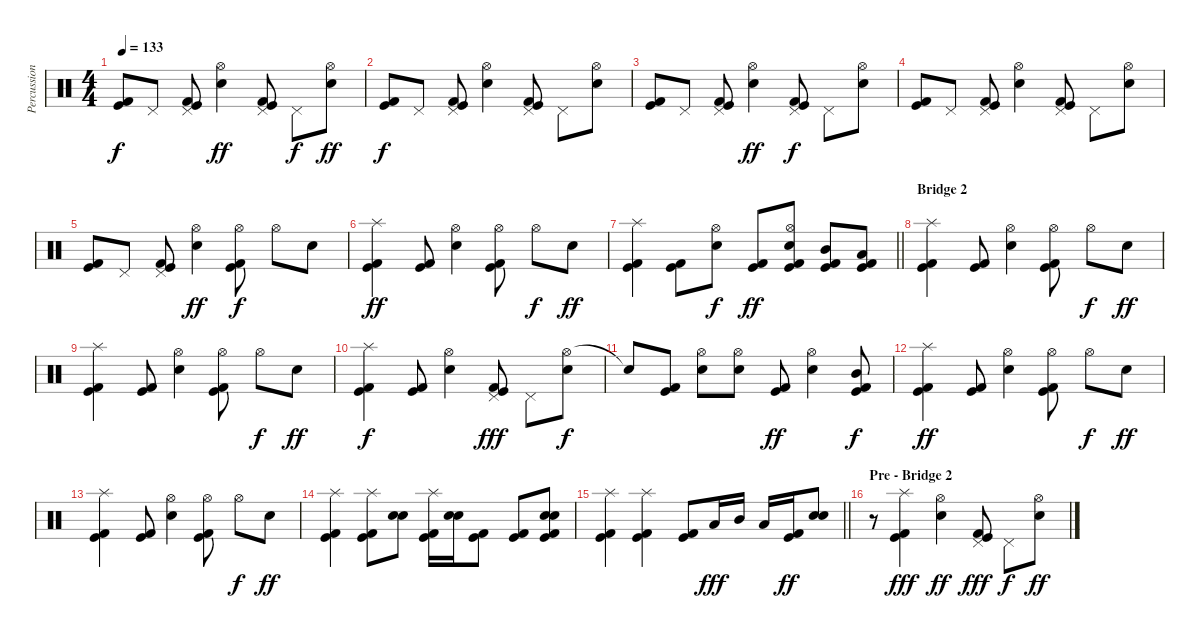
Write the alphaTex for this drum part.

\track ("Percussion" "Percussion") {instrument percussion}
\staff {score}
\articulation defaults
\ts (4 4)
\tempo 133
\clef neutral
\ks c
("Kick (hit)" "Kick (hit) 2").8{dy f} "Pedal Hi-Hat (hit)".8 ("Pedal Hi-Hat (hit)" "Kick (hit)" "Kick (hit) 2").8 ("Hi-Hat (open)" "Snare (hit) 2").4{dy ff} ("Pedal Hi-Hat (hit)" "Kick (hit)" "Kick (hit) 2").8 "Pedal Hi-Hat (hit)".8{dy f} ("Hi-Hat (open)" "Snare (hit) 2").8{dy ff} |
("Kick (hit)" "Kick (hit) 2").8{dy f} "Pedal Hi-Hat (hit)".8 ("Pedal Hi-Hat (hit)" "Kick (hit)" "Kick (hit) 2").8 ("Hi-Hat (open)" "Snare (hit) 2").4 ("Pedal Hi-Hat (hit)" "Kick (hit)" "Kick (hit) 2").8 "Pedal Hi-Hat (hit)".8 ("Hi-Hat (open)" "Snare (hit) 2").8 |
("Kick (hit)" "Kick (hit) 2").8 "Pedal Hi-Hat (hit)".8 ("Pedal Hi-Hat (hit)" "Kick (hit)" "Kick (hit) 2").8 ("Hi-Hat (open)" "Snare (hit) 2").4{dy ff} ("Pedal Hi-Hat (hit)" "Kick (hit)" "Kick (hit) 2").8{dy f} "Pedal Hi-Hat (hit)".8 ("Hi-Hat (open)" "Snare (hit) 2").8 |
("Kick (hit)" "Kick (hit) 2").8 "Pedal Hi-Hat (hit)".8 ("Pedal Hi-Hat (hit)" "Kick (hit)" "Kick (hit) 2").8 ("Hi-Hat (open)" "Snare (hit) 2").4 ("Pedal Hi-Hat (hit)" "Kick (hit)" "Kick (hit) 2").8 "Pedal Hi-Hat (hit)".8 ("Hi-Hat (open)" "Snare (hit) 2").8 |
("Kick (hit)" "Kick (hit) 2").8 "Pedal Hi-Hat (hit)".8 ("Pedal Hi-Hat (hit)" "Kick (hit)" "Kick (hit) 2").8 ("Hi-Hat (open)" "Snare (hit) 2").4{dy ff} ("Hi-Hat (open)" "Kick (hit)" "Kick (hit) 2").8{dy f} "Hi-Hat (open)".8 "Snare (hit) 2".8 |
("Splash (hit)" "Kick (hit)" "Kick (hit) 2").4{dy ff} ("Kick (hit)" "Kick (hit) 2").8 ("Hi-Hat (open)" "Snare (hit) 2").4 ("Hi-Hat (open)" "Kick (hit)" "Kick (hit) 2").8 "Hi-Hat (open)".8{dy f} "Snare (hit) 2".8{dy ff} |
\barLineRight lightlight
("Splash (hit)" "Kick (hit)" "Kick (hit) 2").4 ("Kick (hit)" "Kick (hit) 2").8 ("Hi-Hat (open)" "Snare (hit) 2").8{dy f} ("Kick (hit)" "Kick (hit) 2").8{dy ff} ("Hi-Hat (open)" "Snare (hit) 2" "Kick (hit)" "Kick (hit) 2").8 ("Mid Tom (hit)" "Kick (hit)" "Kick (hit) 2").8 ("Low Tom (hit)" "Kick (hit)" "Kick (hit) 2").8 |
\section ("" "Bridge 2")
("Splash (hit)" "Kick (hit)" "Kick (hit) 2").4 ("Kick (hit)" "Kick (hit) 2").8 ("Hi-Hat (open)" "Snare (hit) 2").4 ("Hi-Hat (open)" "Kick (hit)" "Kick (hit) 2").8 "Hi-Hat (open)".8{dy f} "Snare (hit) 2".8{dy ff} |
("Splash (hit)" "Kick (hit)" "Kick (hit) 2").4 ("Kick (hit)" "Kick (hit) 2").8 ("Hi-Hat (open)" "Snare (hit) 2").4 ("Hi-Hat (open)" "Kick (hit)" "Kick (hit) 2").8 "Hi-Hat (open)".8{dy f} "Snare (hit) 2".8{dy ff} |
("Splash (hit)" "Kick (hit)" "Kick (hit) 2").4{dy f} ("Kick (hit)" "Kick (hit) 2").8 ("Hi-Hat (open)" "Snare (hit) 2").4 ("Pedal Hi-Hat (hit)" "Kick (hit)" "Kick (hit) 2").8{dy fff} "Pedal Hi-Hat (hit)".8 ("Hi-Hat (open)" "Snare (hit) 2").8{dy f} |
"Snare (hit)"{t}.8 ("Kick (hit)" "Kick (hit) 2").8 ("Hi-Hat (open)" "Snare (hit) 2").8 ("Hi-Hat (open)" "Snare (hit) 2").8 ("Kick (hit)" "Kick (hit) 2").8{dy ff} ("Hi-Hat (open)" "Snare (hit) 2").4 ("Mid Tom (hit)" "Kick (hit)" "Kick (hit) 2").8{dy f} |
("Splash (hit)" "Kick (hit)" "Kick (hit) 2").4{dy ff} ("Kick (hit)" "Kick (hit) 2").8 ("Hi-Hat (open)" "Snare (hit) 2").4 ("Hi-Hat (open)" "Kick (hit)" "Kick (hit) 2").8 "Hi-Hat (open)".8{dy f} "Snare (hit) 2".8{dy ff} |
("Splash (hit)" "Kick (hit)" "Kick (hit) 2").4 ("Kick (hit)" "Kick (hit) 2").8 ("Hi-Hat (open)" "Snare (hit) 2").4 ("Hi-Hat (open)" "Kick (hit)" "Kick (hit) 2").8 "Hi-Hat (open)".8{dy f} "Snare (hit) 2".8{dy ff} |
("Splash (hit)" "Kick (hit)" "Kick (hit) 2").4 ("Splash (hit)" "Kick (hit)" "Kick (hit) 2").8 ("Electric Snare (hit)" "Snare (hit) 2").8 ("Splash (hit)" "Kick (hit)" "Kick (hit) 2").16 ("Electric Snare (hit)" "Snare (hit) 2").16 ("Kick (hit)" "Kick (hit) 2").8 ("Kick (hit)" "Kick (hit) 2").8 ("Electric Snare (hit)" "Snare (hit) 2" "Kick (hit)" "Kick (hit) 2").8 |
\barLineRight lightlight
("Splash (hit)" "Kick (hit)" "Kick (hit) 2").4 ("Splash (hit)" "Kick (hit)" "Kick (hit) 2").4 ("Kick (hit)" "Kick (hit) 2").8 "Low Tom (hit)".16{dy fff} "Mid Tom (hit)".16 "Low Tom (hit)".16 ("Kick (hit)" "Kick (hit) 2").16{dy ff} ("Electric Snare (hit)" "Snare (hit) 2").8{bd 60} |
\section ("" "Pre - Bridge 2")
r.8 ("Splash (hit)" "Kick (hit)" "Kick (hit) 2").4{dy fff} ("Hi-Hat (open)" "Snare (hit) 2").4{dy ff} ("Pedal Hi-Hat (hit)" "Kick (hit)" "Kick (hit) 2").8{dy fff} "Pedal Hi-Hat (hit)".8{dy f} ("Hi-Hat (open)" "Snare (hit) 2").8{dy ff}
